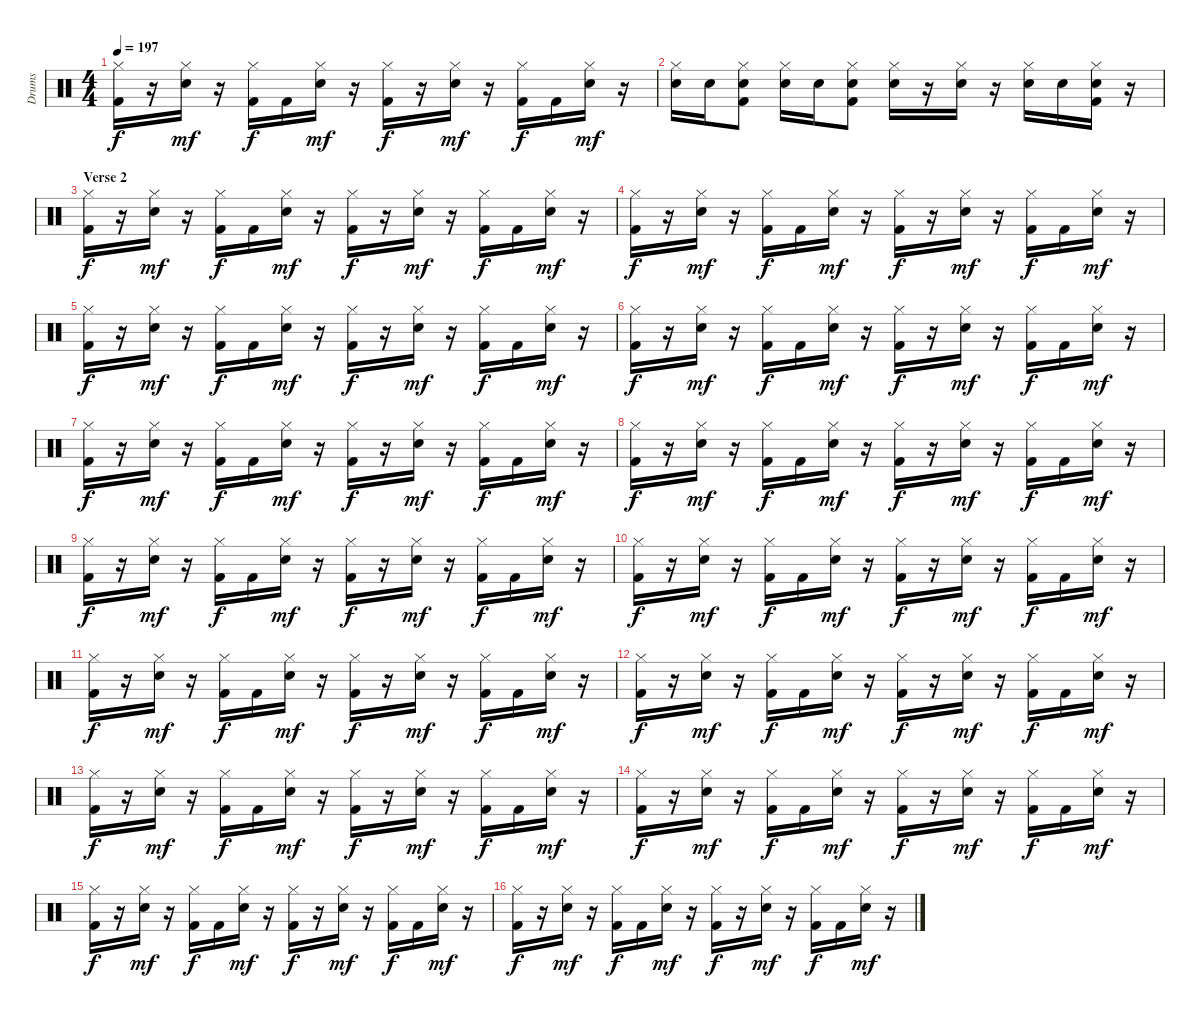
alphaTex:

\track ("Drums" "Drums") {instrument percussion}
\staff {score}
\articulation defaults
\ts (4 4)
\tempo 197
\clef neutral
\ks c
("Kick (hit) 2" "Hi-Hat (closed)").16{dy f} r.16 ("Snare (hit) 2" "Hi-Hat (closed)").16{dy mf} r.16 ("Kick (hit) 2" "Hi-Hat (closed)").16{dy f} "Kick (hit) 2".16 ("Snare (hit) 2" "Hi-Hat (closed)").16{dy mf} r.16 ("Kick (hit) 2" "Hi-Hat (closed)").16{dy f} r.16 ("Snare (hit) 2" "Hi-Hat (closed)").16{dy mf} r.16 ("Kick (hit) 2" "Hi-Hat (closed)").16{dy f} "Kick (hit) 2".16 ("Snare (hit) 2" "Hi-Hat (closed)").16{dy mf} r.16 |
("Snare (hit) 2" "Hi-Hat (closed)").16 "Snare (hit) 2".16 ("Kick (hit) 2" "Snare (hit) 2" "Hi-Hat (closed)").8 ("Snare (hit) 2" "Hi-Hat (closed)").16 "Snare (hit) 2".16 ("Kick (hit) 2" "Snare (hit) 2" "Hi-Hat (closed)").8 ("Snare (hit) 2" "Hi-Hat (closed)").16 r.16 ("Snare (hit) 2" "Hi-Hat (closed)").16 r.16 ("Snare (hit) 2" "Hi-Hat (closed)").16 "Snare (hit) 2".16 ("Kick (hit) 2" "Snare (hit) 2" "Hi-Hat (closed)").16 r.16 |
\section ("" "Verse 2")
("Kick (hit) 2" "Hi-Hat (closed)").16{dy f} r.16 ("Snare (hit) 2" "Hi-Hat (closed)").16{dy mf} r.16 ("Kick (hit) 2" "Hi-Hat (closed)").16{dy f} "Kick (hit) 2".16 ("Snare (hit) 2" "Hi-Hat (closed)").16{dy mf} r.16 ("Kick (hit) 2" "Hi-Hat (closed)").16{dy f} r.16 ("Snare (hit) 2" "Hi-Hat (closed)").16{dy mf} r.16 ("Kick (hit) 2" "Hi-Hat (closed)").16{dy f} "Kick (hit) 2".16 ("Snare (hit) 2" "Hi-Hat (closed)").16{dy mf} r.16 |
("Kick (hit) 2" "Hi-Hat (closed)").16{dy f} r.16 ("Snare (hit) 2" "Hi-Hat (closed)").16{dy mf} r.16 ("Kick (hit) 2" "Hi-Hat (closed)").16{dy f} "Kick (hit) 2".16 ("Snare (hit) 2" "Hi-Hat (closed)").16{dy mf} r.16 ("Kick (hit) 2" "Hi-Hat (closed)").16{dy f} r.16 ("Snare (hit) 2" "Hi-Hat (closed)").16{dy mf} r.16 ("Kick (hit) 2" "Hi-Hat (closed)").16{dy f} "Kick (hit) 2".16 ("Snare (hit) 2" "Hi-Hat (closed)").16{dy mf} r.16 |
("Kick (hit) 2" "Hi-Hat (closed)").16{dy f} r.16 ("Snare (hit) 2" "Hi-Hat (closed)").16{dy mf} r.16 ("Kick (hit) 2" "Hi-Hat (closed)").16{dy f} "Kick (hit) 2".16 ("Snare (hit) 2" "Hi-Hat (closed)").16{dy mf} r.16 ("Kick (hit) 2" "Hi-Hat (closed)").16{dy f} r.16 ("Snare (hit) 2" "Hi-Hat (closed)").16{dy mf} r.16 ("Kick (hit) 2" "Hi-Hat (closed)").16{dy f} "Kick (hit) 2".16 ("Snare (hit) 2" "Hi-Hat (closed)").16{dy mf} r.16 |
("Kick (hit) 2" "Hi-Hat (closed)").16{dy f} r.16 ("Snare (hit) 2" "Hi-Hat (closed)").16{dy mf} r.16 ("Kick (hit) 2" "Hi-Hat (closed)").16{dy f} "Kick (hit) 2".16 ("Snare (hit) 2" "Hi-Hat (closed)").16{dy mf} r.16 ("Kick (hit) 2" "Hi-Hat (closed)").16{dy f} r.16 ("Snare (hit) 2" "Hi-Hat (closed)").16{dy mf} r.16 ("Kick (hit) 2" "Hi-Hat (closed)").16{dy f} "Kick (hit) 2".16 ("Snare (hit) 2" "Hi-Hat (closed)").16{dy mf} r.16 |
("Kick (hit) 2" "Hi-Hat (closed)").16{dy f} r.16 ("Snare (hit) 2" "Hi-Hat (closed)").16{dy mf} r.16 ("Kick (hit) 2" "Hi-Hat (closed)").16{dy f} "Kick (hit) 2".16 ("Snare (hit) 2" "Hi-Hat (closed)").16{dy mf} r.16 ("Kick (hit) 2" "Hi-Hat (closed)").16{dy f} r.16 ("Snare (hit) 2" "Hi-Hat (closed)").16{dy mf} r.16 ("Kick (hit) 2" "Hi-Hat (closed)").16{dy f} "Kick (hit) 2".16 ("Snare (hit) 2" "Hi-Hat (closed)").16{dy mf} r.16 |
("Kick (hit) 2" "Hi-Hat (closed)").16{dy f} r.16 ("Snare (hit) 2" "Hi-Hat (closed)").16{dy mf} r.16 ("Kick (hit) 2" "Hi-Hat (closed)").16{dy f} "Kick (hit) 2".16 ("Snare (hit) 2" "Hi-Hat (closed)").16{dy mf} r.16 ("Kick (hit) 2" "Hi-Hat (closed)").16{dy f} r.16 ("Snare (hit) 2" "Hi-Hat (closed)").16{dy mf} r.16 ("Kick (hit) 2" "Hi-Hat (closed)").16{dy f} "Kick (hit) 2".16 ("Snare (hit) 2" "Hi-Hat (closed)").16{dy mf} r.16 |
("Kick (hit) 2" "Hi-Hat (closed)").16{dy f} r.16 ("Snare (hit) 2" "Hi-Hat (closed)").16{dy mf} r.16 ("Kick (hit) 2" "Hi-Hat (closed)").16{dy f} "Kick (hit) 2".16 ("Snare (hit) 2" "Hi-Hat (closed)").16{dy mf} r.16 ("Kick (hit) 2" "Hi-Hat (closed)").16{dy f} r.16 ("Snare (hit) 2" "Hi-Hat (closed)").16{dy mf} r.16 ("Kick (hit) 2" "Hi-Hat (closed)").16{dy f} "Kick (hit) 2".16 ("Snare (hit) 2" "Hi-Hat (closed)").16{dy mf} r.16 |
("Kick (hit) 2" "Hi-Hat (closed)").16{dy f} r.16 ("Snare (hit) 2" "Hi-Hat (closed)").16{dy mf} r.16 ("Kick (hit) 2" "Hi-Hat (closed)").16{dy f} "Kick (hit) 2".16 ("Snare (hit) 2" "Hi-Hat (closed)").16{dy mf} r.16 ("Kick (hit) 2" "Hi-Hat (closed)").16{dy f} r.16 ("Snare (hit) 2" "Hi-Hat (closed)").16{dy mf} r.16 ("Kick (hit) 2" "Hi-Hat (closed)").16{dy f} "Kick (hit) 2".16 ("Snare (hit) 2" "Hi-Hat (closed)").16{dy mf} r.16 |
("Kick (hit) 2" "Hi-Hat (closed)").16{dy f} r.16 ("Snare (hit) 2" "Hi-Hat (closed)").16{dy mf} r.16 ("Kick (hit) 2" "Hi-Hat (closed)").16{dy f} "Kick (hit) 2".16 ("Snare (hit) 2" "Hi-Hat (closed)").16{dy mf} r.16 ("Kick (hit) 2" "Hi-Hat (closed)").16{dy f} r.16 ("Snare (hit) 2" "Hi-Hat (closed)").16{dy mf} r.16 ("Kick (hit) 2" "Hi-Hat (closed)").16{dy f} "Kick (hit) 2".16 ("Snare (hit) 2" "Hi-Hat (closed)").16{dy mf} r.16 |
("Kick (hit) 2" "Hi-Hat (closed)").16{dy f} r.16 ("Snare (hit) 2" "Hi-Hat (closed)").16{dy mf} r.16 ("Kick (hit) 2" "Hi-Hat (closed)").16{dy f} "Kick (hit) 2".16 ("Snare (hit) 2" "Hi-Hat (closed)").16{dy mf} r.16 ("Kick (hit) 2" "Hi-Hat (closed)").16{dy f} r.16 ("Snare (hit) 2" "Hi-Hat (closed)").16{dy mf} r.16 ("Kick (hit) 2" "Hi-Hat (closed)").16{dy f} "Kick (hit) 2".16 ("Snare (hit) 2" "Hi-Hat (closed)").16{dy mf} r.16 |
("Kick (hit) 2" "Hi-Hat (closed)").16{dy f} r.16 ("Snare (hit) 2" "Hi-Hat (closed)").16{dy mf} r.16 ("Kick (hit) 2" "Hi-Hat (closed)").16{dy f} "Kick (hit) 2".16 ("Snare (hit) 2" "Hi-Hat (closed)").16{dy mf} r.16 ("Kick (hit) 2" "Hi-Hat (closed)").16{dy f} r.16 ("Snare (hit) 2" "Hi-Hat (closed)").16{dy mf} r.16 ("Kick (hit) 2" "Hi-Hat (closed)").16{dy f} "Kick (hit) 2".16 ("Snare (hit) 2" "Hi-Hat (closed)").16{dy mf} r.16 |
("Kick (hit) 2" "Hi-Hat (closed)").16{dy f} r.16 ("Snare (hit) 2" "Hi-Hat (closed)").16{dy mf} r.16 ("Kick (hit) 2" "Hi-Hat (closed)").16{dy f} "Kick (hit) 2".16 ("Snare (hit) 2" "Hi-Hat (closed)").16{dy mf} r.16 ("Kick (hit) 2" "Hi-Hat (closed)").16{dy f} r.16 ("Snare (hit) 2" "Hi-Hat (closed)").16{dy mf} r.16 ("Kick (hit) 2" "Hi-Hat (closed)").16{dy f} "Kick (hit) 2".16 ("Snare (hit) 2" "Hi-Hat (closed)").16{dy mf} r.16 |
("Kick (hit) 2" "Hi-Hat (closed)").16{dy f} r.16 ("Snare (hit) 2" "Hi-Hat (closed)").16{dy mf} r.16 ("Kick (hit) 2" "Hi-Hat (closed)").16{dy f} "Kick (hit) 2".16 ("Snare (hit) 2" "Hi-Hat (closed)").16{dy mf} r.16 ("Kick (hit) 2" "Hi-Hat (closed)").16{dy f} r.16 ("Snare (hit) 2" "Hi-Hat (closed)").16{dy mf} r.16 ("Kick (hit) 2" "Hi-Hat (closed)").16{dy f} "Kick (hit) 2".16 ("Snare (hit) 2" "Hi-Hat (closed)").16{dy mf} r.16 |
("Kick (hit) 2" "Hi-Hat (closed)").16{dy f} r.16 ("Snare (hit) 2" "Hi-Hat (closed)").16{dy mf} r.16 ("Kick (hit) 2" "Hi-Hat (closed)").16{dy f} "Kick (hit) 2".16 ("Snare (hit) 2" "Hi-Hat (closed)").16{dy mf} r.16 ("Kick (hit) 2" "Hi-Hat (closed)").16{dy f} r.16 ("Snare (hit) 2" "Hi-Hat (closed)").16{dy mf} r.16 ("Kick (hit) 2" "Hi-Hat (closed)").16{dy f} "Kick (hit) 2".16 ("Snare (hit) 2" "Hi-Hat (closed)").16{dy mf} r.16
